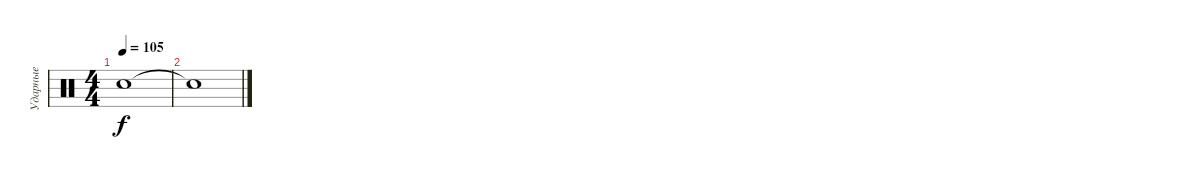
\track ("Ударные" "Ударные") {instrument percussion}
\staff {score}
\articulation defaults
\ts (4 4)
\tempo 105
\clef neutral
\ks c "Snare (hit)"{t}.1{dy f}
|
"Snare (hit)"{t}.1
